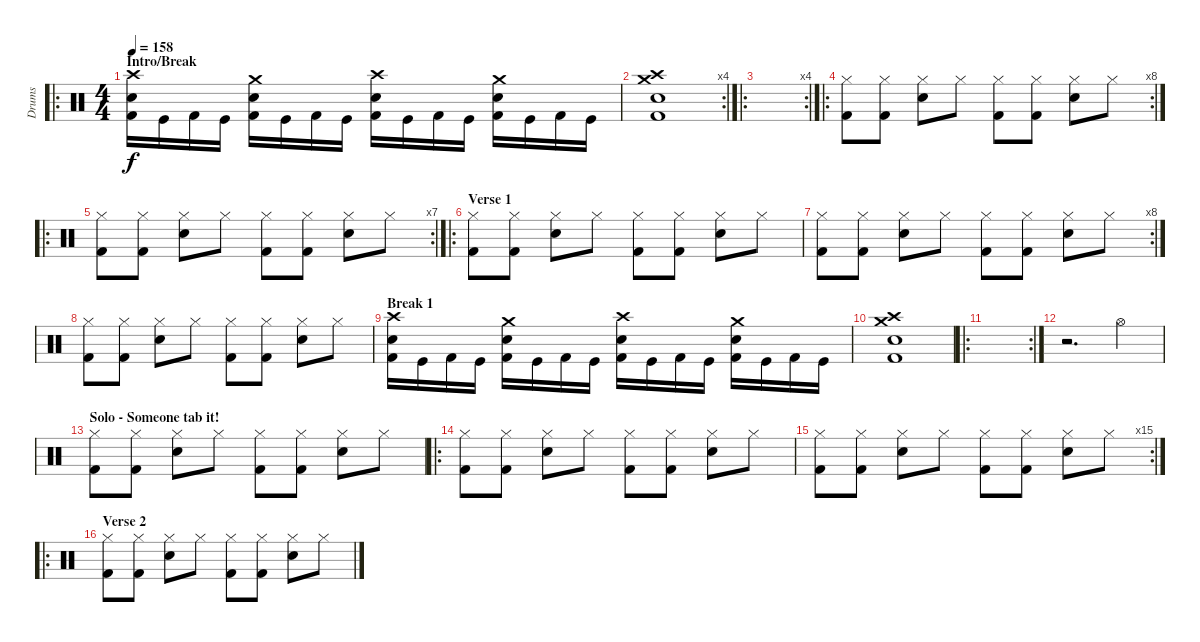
\track ("Drums" "Drums") {instrument percussion}
\staff {score}
\articulation defaults
\ro
\ts (4 4)
\section ("" "Intro/Break")
\tempo 158
\clef neutral
\ks c
("Crash high (hit)" "Snare (hit) 2" "Kick (hit) 2").16{dy f} "Kick (hit)".16 "Kick (hit) 2".16 "Kick (hit)".16 ("Crash medium (hit)" "Snare (hit) 2" "Kick (hit) 2").16 "Kick (hit)".16 "Kick (hit) 2".16 "Kick (hit)".16 ("Crash high (hit)" "Snare (hit) 2" "Kick (hit) 2").16 "Kick (hit)".16 "Kick (hit) 2".16 "Kick (hit)".16 ("Crash medium (hit)" "Snare (hit) 2" "Kick (hit) 2").16 "Kick (hit)".16 "Kick (hit) 2".16 "Kick (hit)".16 |
\rc 4
("Crash high (hit)" "Crash medium (hit)" "Snare (hit) 2" "Kick (hit) 2").1 |
\ro
\rc 4
|
\ro
\rc 8
("Hi-Hat (closed)" "Kick (hit) 2").8 ("Hi-Hat (closed)" "Kick (hit) 2").8 ("Hi-Hat (closed)" "Snare (hit) 2").8 "Hi-Hat (closed)".8 ("Hi-Hat (closed)" "Kick (hit) 2").8 ("Hi-Hat (closed)" "Kick (hit) 2").8 ("Hi-Hat (closed)" "Snare (hit) 2").8 "Hi-Hat (closed)".8 |
\ro
\rc 7
("Hi-Hat (closed)" "Kick (hit) 2").8 ("Hi-Hat (closed)" "Kick (hit) 2").8 ("Hi-Hat (closed)" "Snare (hit) 2").8 "Hi-Hat (closed)".8 ("Hi-Hat (closed)" "Kick (hit) 2").8 ("Hi-Hat (closed)" "Kick (hit) 2").8 ("Hi-Hat (closed)" "Snare (hit) 2").8 "Hi-Hat (closed)".8 |
\ro
\section ("" "Verse 1")
("Hi-Hat (closed)" "Kick (hit) 2").8 ("Hi-Hat (closed)" "Kick (hit) 2").8 ("Hi-Hat (closed)" "Snare (hit) 2").8 "Hi-Hat (closed)".8 ("Hi-Hat (closed)" "Kick (hit) 2").8 ("Hi-Hat (closed)" "Kick (hit) 2").8 ("Hi-Hat (closed)" "Snare (hit) 2").8 "Hi-Hat (closed)".8 |
\rc 8
("Hi-Hat (closed)" "Kick (hit) 2").8 ("Hi-Hat (closed)" "Kick (hit) 2").8 ("Hi-Hat (closed)" "Snare (hit) 2").8 "Hi-Hat (closed)".8 ("Hi-Hat (closed)" "Kick (hit) 2").8 ("Hi-Hat (closed)" "Kick (hit) 2").8 ("Hi-Hat (closed)" "Snare (hit) 2").8 "Hi-Hat (closed)".8 |
("Hi-Hat (closed)" "Kick (hit) 2").8 ("Hi-Hat (closed)" "Kick (hit) 2").8 ("Hi-Hat (closed)" "Snare (hit) 2").8 "Hi-Hat (closed)".8 ("Hi-Hat (closed)" "Kick (hit) 2").8 ("Hi-Hat (closed)" "Kick (hit) 2").8 ("Hi-Hat (closed)" "Snare (hit) 2").8 "Hi-Hat (closed)".8 |
\section ("" "Break 1")
("Crash high (hit)" "Snare (hit) 2" "Kick (hit) 2").16 "Kick (hit)".16 "Kick (hit) 2".16 "Kick (hit)".16 ("Crash medium (hit)" "Snare (hit) 2" "Kick (hit) 2").16 "Kick (hit)".16 "Kick (hit) 2".16 "Kick (hit)".16 ("Crash high (hit)" "Snare (hit) 2" "Kick (hit) 2").16 "Kick (hit)".16 "Kick (hit) 2".16 "Kick (hit)".16 ("Crash medium (hit)" "Snare (hit) 2" "Kick (hit) 2").16 "Kick (hit)".16 "Kick (hit) 2".16 "Kick (hit)".16 |
("Crash high (hit)" "Crash medium (hit)" "Snare (hit) 2" "Kick (hit) 2").1 |
\ro
\rc 2
|
r.2{d} "Hi-Hat (open)".4 |
\section ("" "Solo - Someone tab it!")
("Hi-Hat (closed)" "Kick (hit) 2").8 ("Hi-Hat (closed)" "Kick (hit) 2").8 ("Hi-Hat (closed)" "Snare (hit) 2").8 "Hi-Hat (closed)".8 ("Hi-Hat (closed)" "Kick (hit) 2").8 ("Hi-Hat (closed)" "Kick (hit) 2").8 ("Hi-Hat (closed)" "Snare (hit) 2").8 "Hi-Hat (closed)".8 |
\ro
("Hi-Hat (closed)" "Kick (hit) 2").8 ("Hi-Hat (closed)" "Kick (hit) 2").8 ("Hi-Hat (closed)" "Snare (hit) 2").8 "Hi-Hat (closed)".8 ("Hi-Hat (closed)" "Kick (hit) 2").8 ("Hi-Hat (closed)" "Kick (hit) 2").8 ("Hi-Hat (closed)" "Snare (hit) 2").8 "Hi-Hat (closed)".8 |
\rc 15
("Hi-Hat (closed)" "Kick (hit) 2").8 ("Hi-Hat (closed)" "Kick (hit) 2").8 ("Hi-Hat (closed)" "Snare (hit) 2").8 "Hi-Hat (closed)".8 ("Hi-Hat (closed)" "Kick (hit) 2").8 ("Hi-Hat (closed)" "Kick (hit) 2").8 ("Hi-Hat (closed)" "Snare (hit) 2").8 "Hi-Hat (closed)".8 |
\ro
\section ("" "Verse 2")
("Hi-Hat (closed)" "Kick (hit) 2").8 ("Hi-Hat (closed)" "Kick (hit) 2").8 ("Hi-Hat (closed)" "Snare (hit) 2").8 "Hi-Hat (closed)".8 ("Hi-Hat (closed)" "Kick (hit) 2").8 ("Hi-Hat (closed)" "Kick (hit) 2").8 ("Hi-Hat (closed)" "Snare (hit) 2").8 "Hi-Hat (closed)".8
